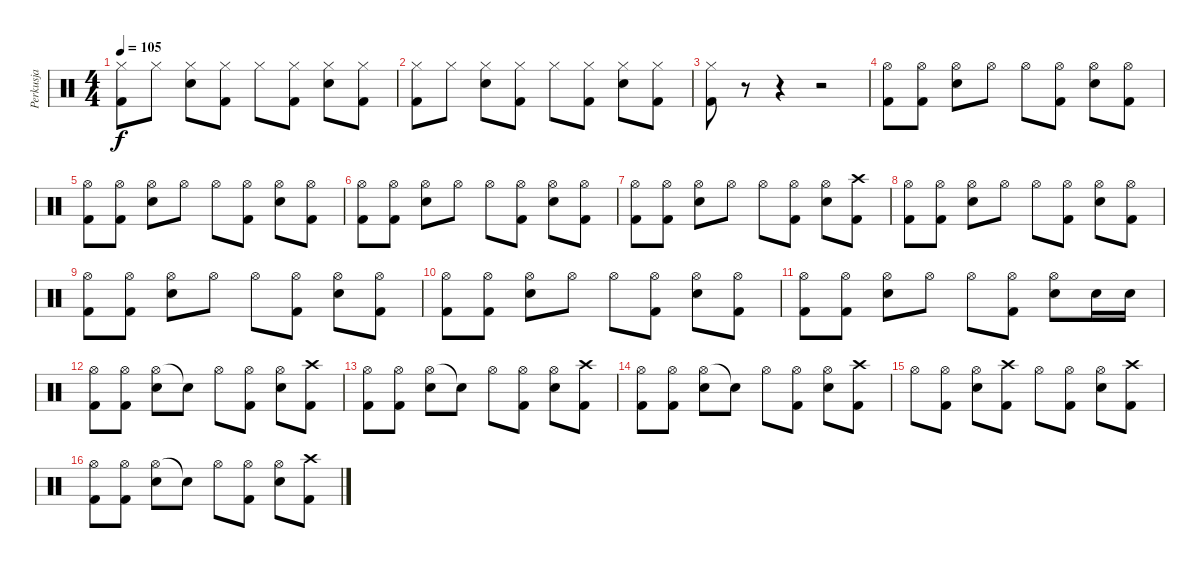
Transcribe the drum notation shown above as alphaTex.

\track ("Perkusja" "Perkusja") {instrument percussion}
\staff {score}
\articulation defaults
\ts (4 4)
\tempo 105
\clef neutral
\ks c
("Hi-Hat (closed)" "Kick (hit) 2").8{dy f} "Hi-Hat (closed)".8 ("Hi-Hat (closed)" "Snare (hit) 2").8 ("Hi-Hat (closed)" "Kick (hit) 2").8 "Hi-Hat (closed)".8 ("Hi-Hat (closed)" "Kick (hit) 2").8 ("Hi-Hat (closed)" "Snare (hit) 2").8 ("Hi-Hat (closed)" "Kick (hit) 2").8 |
("Hi-Hat (closed)" "Kick (hit) 2").8 "Hi-Hat (closed)".8 ("Hi-Hat (closed)" "Snare (hit) 2").8 ("Hi-Hat (closed)" "Kick (hit) 2").8 "Hi-Hat (closed)".8 ("Hi-Hat (closed)" "Kick (hit) 2").8 ("Hi-Hat (closed)" "Snare (hit) 2").8 ("Hi-Hat (closed)" "Kick (hit) 2").8 |
("Hi-Hat (closed)" "Kick (hit) 2").8 r.8 r.4 r.2 |
("Hi-Hat (open)" "Kick (hit) 2").8 ("Hi-Hat (open)" "Kick (hit) 2").8 ("Hi-Hat (open)" "Snare (hit) 2").8 "Hi-Hat (open)".8 "Hi-Hat (open)".8 ("Hi-Hat (open)" "Kick (hit) 2").8 ("Hi-Hat (open)" "Snare (hit) 2").8 ("Hi-Hat (open)" "Kick (hit) 2").8 |
("Hi-Hat (open)" "Kick (hit) 2").8 ("Hi-Hat (open)" "Kick (hit) 2").8 ("Hi-Hat (open)" "Snare (hit) 2").8 "Hi-Hat (open)".8 "Hi-Hat (open)".8 ("Hi-Hat (open)" "Kick (hit) 2").8 ("Hi-Hat (open)" "Snare (hit) 2").8 ("Hi-Hat (open)" "Kick (hit) 2").8 |
("Hi-Hat (open)" "Kick (hit) 2").8 ("Hi-Hat (open)" "Kick (hit) 2").8 ("Hi-Hat (open)" "Snare (hit) 2").8 "Hi-Hat (open)".8 "Hi-Hat (open)".8 ("Hi-Hat (open)" "Kick (hit) 2").8 ("Hi-Hat (open)" "Snare (hit) 2").8 ("Hi-Hat (open)" "Kick (hit) 2").8 |
("Hi-Hat (open)" "Kick (hit) 2").8 ("Hi-Hat (open)" "Kick (hit) 2").8 ("Hi-Hat (open)" "Snare (hit) 2").8 "Hi-Hat (open)".8 "Hi-Hat (open)".8 ("Hi-Hat (open)" "Kick (hit) 2").8 ("Hi-Hat (open)" "Snare (hit) 2").8 ("Crash high (hit)" "Kick (hit) 2").8 |
("Hi-Hat (open)" "Kick (hit) 2").8 ("Hi-Hat (open)" "Kick (hit) 2").8 ("Hi-Hat (open)" "Snare (hit) 2").8 "Hi-Hat (open)".8 "Hi-Hat (open)".8 ("Hi-Hat (open)" "Kick (hit) 2").8 ("Hi-Hat (open)" "Snare (hit) 2").8 ("Hi-Hat (open)" "Kick (hit) 2").8 |
("Hi-Hat (open)" "Kick (hit) 2").8 ("Hi-Hat (open)" "Kick (hit) 2").8 ("Hi-Hat (open)" "Snare (hit) 2").8 "Hi-Hat (open)".8 "Hi-Hat (open)".8 ("Hi-Hat (open)" "Kick (hit) 2").8 ("Hi-Hat (open)" "Snare (hit) 2").8 ("Hi-Hat (open)" "Kick (hit) 2").8 |
("Hi-Hat (open)" "Kick (hit) 2").8 ("Hi-Hat (open)" "Kick (hit) 2").8 ("Hi-Hat (open)" "Snare (hit) 2").8 "Hi-Hat (open)".8 "Hi-Hat (open)".8 ("Hi-Hat (open)" "Kick (hit) 2").8 ("Hi-Hat (open)" "Snare (hit) 2").8 ("Hi-Hat (open)" "Kick (hit) 2").8 |
("Hi-Hat (open)" "Kick (hit) 2").8 ("Hi-Hat (open)" "Kick (hit) 2").8 ("Hi-Hat (open)" "Snare (hit) 2").8 "Hi-Hat (open)".8 "Hi-Hat (open)".8 ("Hi-Hat (open)" "Kick (hit) 2").8 ("Hi-Hat (open)" "Snare (hit) 2").8 "Snare (hit) 2".16 "Snare (hit) 2".16 |
("Hi-Hat (open)" "Kick (hit) 2").8 ("Hi-Hat (open)" "Kick (hit) 2").8 ("Hi-Hat (open)" "Snare (hit) 2").8 "Snare (hit)"{t}.8 "Hi-Hat (open)".8 ("Hi-Hat (open)" "Kick (hit) 2").8 ("Hi-Hat (open)" "Snare (hit) 2").8 ("Crash high (hit)" "Kick (hit) 2").8 |
("Hi-Hat (open)" "Kick (hit) 2").8 ("Hi-Hat (open)" "Kick (hit) 2").8 ("Hi-Hat (open)" "Snare (hit) 2").8 "Snare (hit)"{t}.8 "Hi-Hat (open)".8 ("Hi-Hat (open)" "Kick (hit) 2").8 ("Hi-Hat (open)" "Snare (hit) 2").8 ("Crash high (hit)" "Kick (hit) 2").8 |
("Hi-Hat (open)" "Kick (hit) 2").8 ("Hi-Hat (open)" "Kick (hit) 2").8 ("Hi-Hat (open)" "Snare (hit) 2").8 "Snare (hit)"{t}.8 "Hi-Hat (open)".8 ("Hi-Hat (open)" "Kick (hit) 2").8 ("Hi-Hat (open)" "Snare (hit) 2").8 ("Crash high (hit)" "Kick (hit) 2").8 |
"Hi-Hat (open)".8 ("Hi-Hat (open)" "Kick (hit) 2").8 ("Hi-Hat (open)" "Snare (hit) 2").8 ("Crash high (hit)" "Kick (hit) 2").8 "Hi-Hat (open)".8 ("Hi-Hat (open)" "Kick (hit) 2").8 ("Hi-Hat (open)" "Snare (hit) 2").8 ("Crash high (hit)" "Kick (hit) 2").8 |
("Hi-Hat (open)" "Kick (hit) 2").8 ("Hi-Hat (open)" "Kick (hit) 2").8 ("Hi-Hat (open)" "Snare (hit) 2").8 "Snare (hit)"{t}.8 "Hi-Hat (open)".8 ("Hi-Hat (open)" "Kick (hit) 2").8 ("Hi-Hat (open)" "Snare (hit) 2").8 ("Crash high (hit)" "Kick (hit) 2").8
